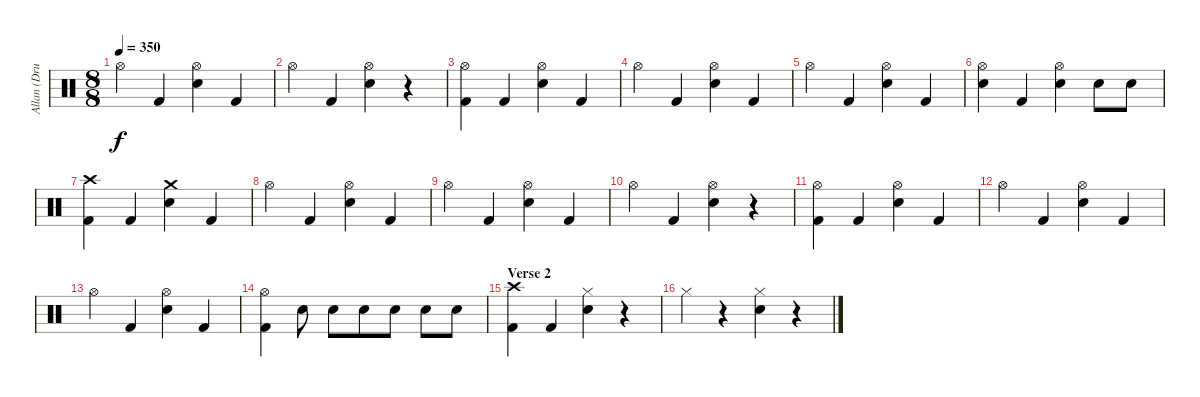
\track ("Allan (Drums)" "Allan (Dru") {instrument percussion}
\staff {score}
\articulation defaults
\ts (8 8)
\tempo 350
\clef neutral
\ks c "Hi-Hat (open)".4{dy f} "Kick (hit) 2".4
("Hi-Hat (open)" "Snare (hit) 2").4 "Kick (hit) 2".4 |
"Hi-Hat (open)".4 "Kick (hit) 2".4 ("Hi-Hat (open)" "Snare (hit) 2").4 r.4 |
("Hi-Hat (open)" "Kick (hit) 2").4 "Kick (hit) 2".4 ("Hi-Hat (open)" "Snare (hit) 2").4 "Kick (hit) 2".4 |
"Hi-Hat (open)".4 "Kick (hit) 2".4 ("Hi-Hat (open)" "Snare (hit) 2").4 "Kick (hit) 2".4 |
"Hi-Hat (open)".4 "Kick (hit) 2".4 ("Hi-Hat (open)" "Snare (hit) 2").4 "Kick (hit) 2".4 |
("Hi-Hat (open)" "Snare (hit) 2").4 "Kick (hit) 2".4 ("Hi-Hat (open)" "Snare (hit) 2").4 "Snare (hit) 2".8 "Snare (hit) 2".8 |
("Crash high (hit)" "Kick (hit) 2").4 "Kick (hit) 2".4 ("Crash medium (hit)" "Snare (hit) 2").4 "Kick (hit) 2".4 |
"Hi-Hat (open)".4 "Kick (hit) 2".4 ("Hi-Hat (open)" "Snare (hit) 2").4 "Kick (hit) 2".4 |
"Hi-Hat (open)".4 "Kick (hit) 2".4 ("Hi-Hat (open)" "Snare (hit) 2").4 "Kick (hit) 2".4 |
"Hi-Hat (open)".4 "Kick (hit) 2".4 ("Hi-Hat (open)" "Snare (hit) 2").4 r.4 |
("Hi-Hat (open)" "Kick (hit) 2").4 "Kick (hit) 2".4 ("Hi-Hat (open)" "Snare (hit) 2").4 "Kick (hit) 2".4 |
"Hi-Hat (open)".4 "Kick (hit) 2".4 ("Hi-Hat (open)" "Snare (hit) 2").4 "Kick (hit) 2".4 |
"Hi-Hat (open)".4 "Kick (hit) 2".4 ("Hi-Hat (open)" "Snare (hit) 2").4 "Kick (hit) 2".4 |
("Hi-Hat (open)" "Kick (hit) 2").4 "Snare (hit) 2".8 "Snare (hit) 2".8 "Snare (hit) 2".8 "Snare (hit) 2".8 "Snare (hit) 2".8 "Snare (hit) 2".8 |
\section ("" "Verse 2")
("Crash high (hit)" "Kick (hit) 2").4 "Kick (hit) 2".4 ("Hi-Hat (closed)" "Snare (hit) 2").4 r.4 |
"Hi-Hat (closed)".4 r.4 ("Hi-Hat (closed)" "Snare (hit) 2").4 r.4
